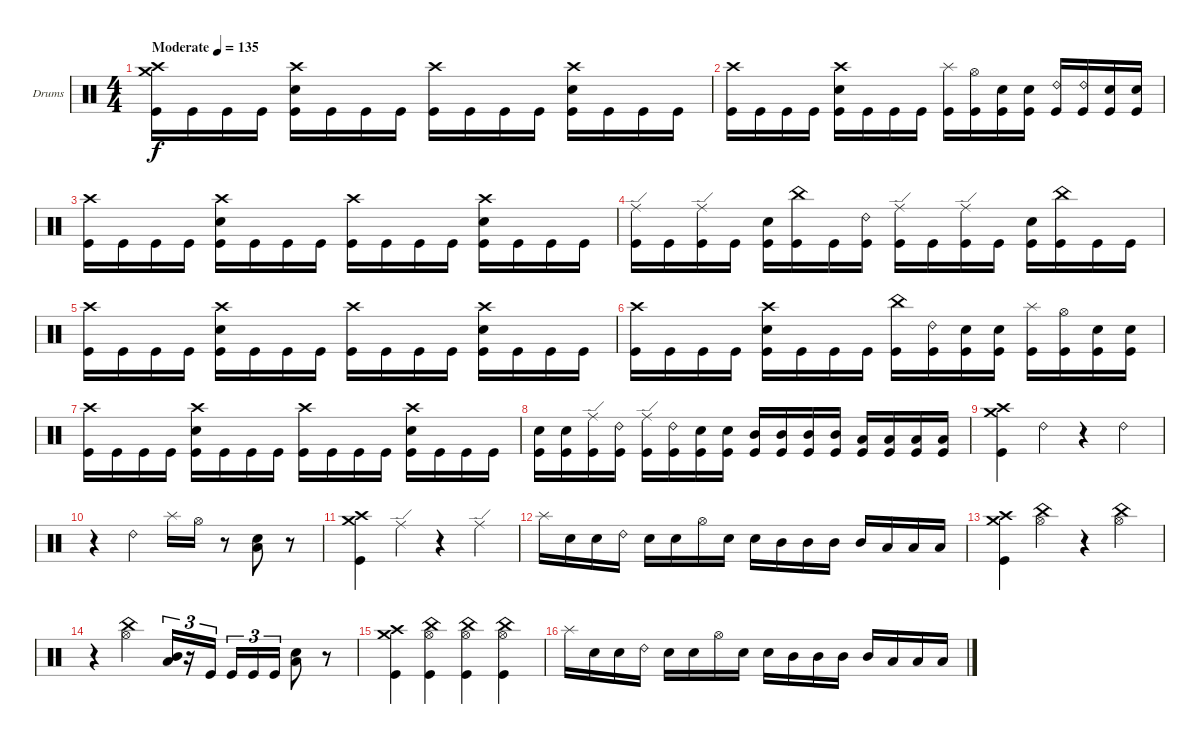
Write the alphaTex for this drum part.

\bracketExtendMode groupsimilarinstruments
\firstSystemTrackNameOrientation horizontal
\otherSystemsTrackNameOrientation horizontal
\track ("Drumkit" "Drums") {instrument percussion}
\staff {score}
\articulation defaults
\ts (4 4)
\beaming (8 2 2 2 2)
\tempo (135 "Moderate")
\clef neutral
\ks c
("Crash medium (hit)" "Crash high (hit)" "Kick (hit)").16{dy f} "Kick (hit)".16 "Kick (hit)".16 "Kick (hit)".16 ("Crash high (hit)" "Snare (hit) 2" "Kick (hit)").16 "Kick (hit)".16 "Kick (hit)".16 "Kick (hit)".16 ("Crash high (hit)" "Kick (hit)").16 "Kick (hit)".16 "Kick (hit)".16 "Kick (hit)".16 ("Crash high (hit)" "Snare (hit) 2" "Kick (hit)").16 "Kick (hit)".16 "Kick (hit)".16 "Kick (hit)".16 |
("Crash high (hit)" "Kick (hit)").16 "Kick (hit)".16 "Kick (hit)".16 "Kick (hit)".16 ("Crash high (hit)" "Snare (hit) 2" "Kick (hit)").16 "Kick (hit)".16 "Kick (hit)".16 "Kick (hit)".16 ("Splash (hit)" "Kick (hit)").16 ("Hi-Hat (open)" "Kick (hit)").16 ("Snare (hit) 2" "Kick (hit)").16 ("Snare (hit) 2" "Kick (hit)").16 ("Ride (bell) 2" "Kick (hit)").16 ("Ride (bell) 2" "Kick (hit)").16 ("Snare (hit) 2" "Kick (hit)").16 ("Snare (hit) 2" "Kick (hit)").16 |
("Crash high (hit)" "Kick (hit)").16 "Kick (hit)".16 "Kick (hit)".16 "Kick (hit)".16 ("Crash high (hit)" "Snare (hit) 2" "Kick (hit)").16 "Kick (hit)".16 "Kick (hit)".16 "Kick (hit)".16 ("Crash high (hit)" "Kick (hit)").16 "Kick (hit)".16 "Kick (hit)".16 "Kick (hit)".16 ("Crash high (hit)" "Snare (hit) 2" "Kick (hit)").16 "Kick (hit)".16 "Kick (hit)".16 "Kick (hit)".16 |
("Ride (edge)" "Kick (hit)").16 "Kick (hit)".16 ("Ride (edge)" "Kick (hit)").16 "Kick (hit)".16 ("Snare (hit) 2" "Kick (hit)").16 ("China (hit)" "Kick (hit)").16 "Kick (hit)".16 ("Ride (bell) 2" "Kick (hit)").16 ("Ride (edge)" "Kick (hit)").16 "Kick (hit)".16 ("Ride (edge)" "Kick (hit)").16 "Kick (hit)".16 ("Snare (hit) 2" "Kick (hit)").16 ("China (hit)" "Kick (hit)").16 "Kick (hit)".16 "Kick (hit)".16 |
("Crash high (hit)" "Kick (hit)").16 "Kick (hit)".16 "Kick (hit)".16 "Kick (hit)".16 ("Crash high (hit)" "Snare (hit) 2" "Kick (hit)").16 "Kick (hit)".16 "Kick (hit)".16 "Kick (hit)".16 ("Crash high (hit)" "Kick (hit)").16 "Kick (hit)".16 "Kick (hit)".16 "Kick (hit)".16 ("Crash high (hit)" "Snare (hit) 2" "Kick (hit)").16 "Kick (hit)".16 "Kick (hit)".16 "Kick (hit)".16 |
("Crash high (hit)" "Kick (hit)").16 "Kick (hit)".16 "Kick (hit)".16 "Kick (hit)".16 ("Crash high (hit)" "Snare (hit) 2" "Kick (hit)").16 "Kick (hit)".16 "Kick (hit)".16 "Kick (hit)".16 ("China (hit)" "Kick (hit)").16 ("Ride (bell) 2" "Kick (hit)").16 ("Snare (hit) 2" "Kick (hit)").16 ("Snare (hit) 2" "Kick (hit)").16 ("Splash (hit)" "Kick (hit)").16 ("Hi-Hat (open)" "Kick (hit)").16 ("Snare (hit) 2" "Kick (hit)").16 ("Snare (hit) 2" "Kick (hit)").16 |
("Crash high (hit)" "Kick (hit)").16 "Kick (hit)".16 "Kick (hit)".16 "Kick (hit)".16 ("Crash high (hit)" "Snare (hit) 2" "Kick (hit)").16 "Kick (hit)".16 "Kick (hit)".16 "Kick (hit)".16 ("Crash high (hit)" "Kick (hit)").16 "Kick (hit)".16 "Kick (hit)".16 "Kick (hit)".16 ("Crash high (hit)" "Snare (hit) 2" "Kick (hit)").16 "Kick (hit)".16 "Kick (hit)".16 "Kick (hit)".16 |
("Snare (hit) 2" "Kick (hit)").16 ("Snare (hit) 2" "Kick (hit)").16 ("Ride (edge)" "Kick (hit)").16 ("Ride (bell) 2" "Kick (hit)").16 ("Ride (edge)" "Kick (hit)").16 ("Ride (bell) 2" "Kick (hit)").16 ("Snare (hit) 2" "Kick (hit)").16 ("Snare (hit) 2" "Kick (hit)").16 ("Mid Tom (hit)" "Kick (hit)").16 ("Mid Tom (hit)" "Kick (hit)").16 ("Mid Tom (hit)" "Kick (hit)").16 ("Mid Tom (hit)" "Kick (hit)").16 ("Low Tom (hit)" "Kick (hit)").16 ("Low Tom (hit)" "Kick (hit)").16 ("Low Tom (hit)" "Kick (hit)").16 ("Low Tom (hit)" "Kick (hit)").16 |
("Crash medium (hit)" "Crash high (hit)" "Kick (hit)").4 "Ride (bell) 2".4 r.4 "Ride (bell) 2".4 |
r.4 "Ride (bell) 2".4 "Splash (hit)".16 "Hi-Hat (open)".16 r.8 ("Low Tom (hit)" "Snare (hit) 2").8 r.8 |
("Crash medium (hit)" "Crash high (hit)" "Kick (hit)").4 "Ride (edge)".4 r.4 "Ride (edge)".4 |
"Splash (hit)".16 "Snare (hit) 2".16 "Snare (hit) 2".16 "Ride (bell) 2".16 "Snare (hit) 2".16 "Snare (hit) 2".16 "Hi-Hat (open)".16 "Snare (hit) 2".16 "Snare (hit) 2".16 "Mid Tom (hit)".16 "Mid Tom (hit)".16 "Mid Tom (hit)".16 "Mid Tom (hit)".16 "Low Tom (hit)".16 "Low Tom (hit)".16 "Low Tom (hit)".16 |
("Crash medium (hit)" "Crash high (hit)" "Kick (hit)").4 ("China (hit)" "Hi-Hat (open)").4 r.4 ("China (hit)" "Hi-Hat (open)").4 |
r.4 ("China (hit)" "Hi-Hat (open)").4 ("Mid Tom (hit)" "Low Tom (hit)").16{tu (3 2)} r.16{tu (3 2)} "Kick (hit)".16{tu (3 2)} "Kick (hit)".16{tu (3 2)} "Kick (hit)".16{tu (3 2)} "Kick (hit)".16{tu (3 2)} ("Low Tom (hit)" "Snare (hit) 2").8 r.8 |
("Crash medium (hit)" "Crash high (hit)" "Kick (hit)").4 ("China (hit)" "Hi-Hat (open)" "Kick (hit)").4 ("China (hit)" "Hi-Hat (open)" "Kick (hit)").4 ("China (hit)" "Hi-Hat (open)" "Kick (hit)").4 |
"Splash (hit)".16 "Snare (hit) 2".16 "Snare (hit) 2".16 "Ride (bell) 2".16 "Snare (hit) 2".16 "Snare (hit) 2".16 "Hi-Hat (open)".16 "Snare (hit) 2".16 "Snare (hit) 2".16 "Mid Tom (hit)".16 "Mid Tom (hit)".16 "Mid Tom (hit)".16 "Mid Tom (hit)".16 "Low Tom (hit)".16 "Low Tom (hit)".16 "Low Tom (hit)".16
